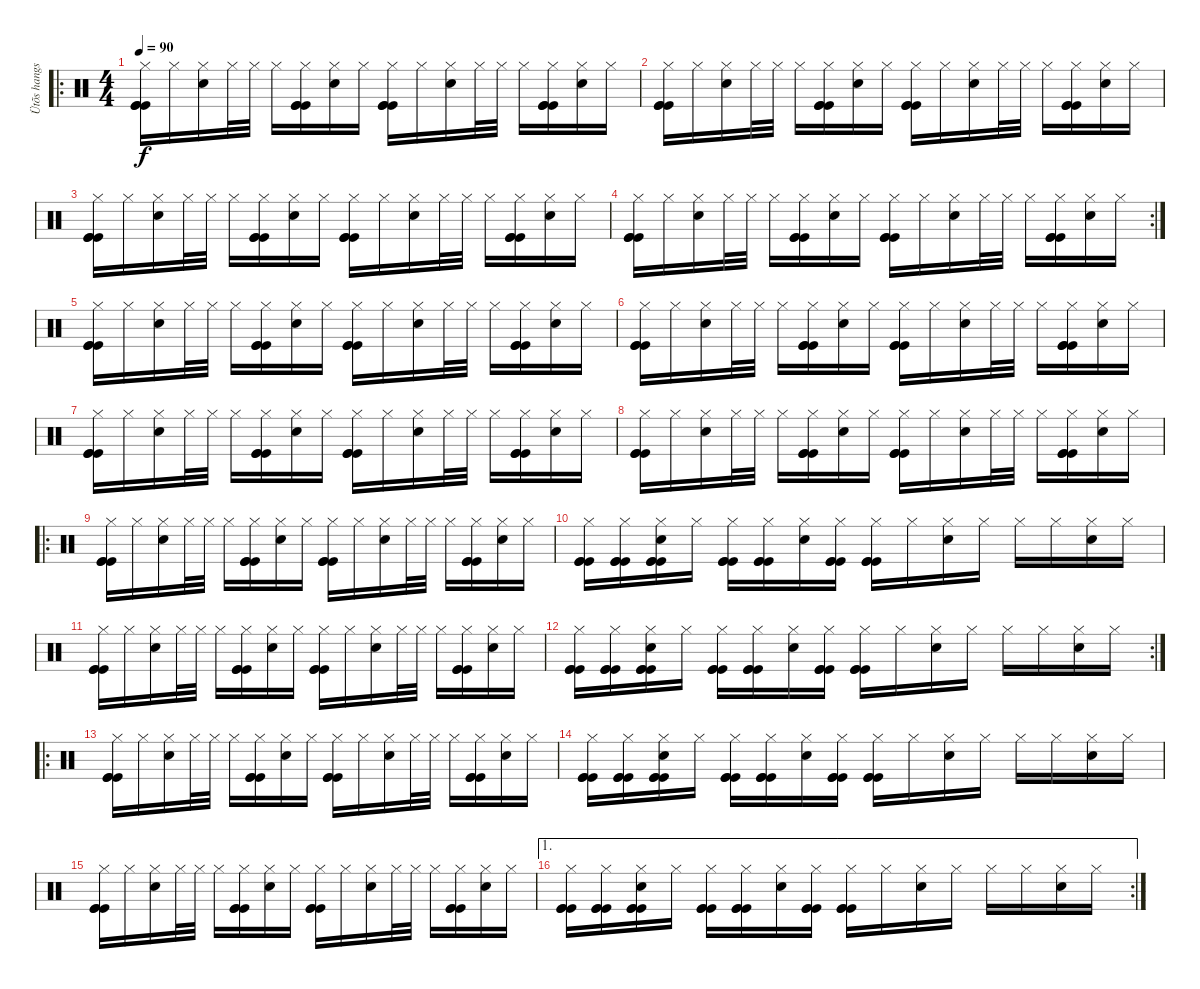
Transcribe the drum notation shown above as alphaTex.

\track ("Ütõs hangszer" "Ütõs hangs") {instrument percussion}
\staff {score}
\articulation defaults
\ro
\ts (4 4)
\tempo 90
\clef neutral
\ks c
("Hi-Hat (closed)" "Kick (hit)" "Kick (hit)" "Kick (hit)").16{dy f} "Hi-Hat (closed)".16 ("Hi-Hat (closed)" "Electric Snare (hit)").16 "Hi-Hat (closed)".32 "Hi-Hat (closed)".32 "Hi-Hat (closed)".16 ("Hi-Hat (closed)" "Kick (hit)" "Kick (hit)" "Kick (hit)").16 ("Hi-Hat (closed)" "Electric Snare (hit)").16 "Hi-Hat (closed)".16 ("Hi-Hat (closed)" "Kick (hit)" "Kick (hit)" "Kick (hit)").16 "Hi-Hat (closed)".16 ("Hi-Hat (closed)" "Electric Snare (hit)").16 "Hi-Hat (closed)".32 "Hi-Hat (closed)".32 "Hi-Hat (closed)".16 ("Hi-Hat (closed)" "Kick (hit)" "Kick (hit)" "Kick (hit)").16 ("Hi-Hat (closed)" "Electric Snare (hit)").16 "Hi-Hat (closed)".16 |
("Hi-Hat (closed)" "Kick (hit)" "Kick (hit)" "Kick (hit)").16 "Hi-Hat (closed)".16 ("Hi-Hat (closed)" "Electric Snare (hit)").16 "Hi-Hat (closed)".32 "Hi-Hat (closed)".32 "Hi-Hat (closed)".16 ("Hi-Hat (closed)" "Kick (hit)" "Kick (hit)" "Kick (hit)").16 ("Hi-Hat (closed)" "Electric Snare (hit)").16 "Hi-Hat (closed)".16 ("Hi-Hat (closed)" "Kick (hit)" "Kick (hit)" "Kick (hit)").16 "Hi-Hat (closed)".16 ("Hi-Hat (closed)" "Electric Snare (hit)").16 "Hi-Hat (closed)".32 "Hi-Hat (closed)".32 "Hi-Hat (closed)".16 ("Hi-Hat (closed)" "Kick (hit)" "Kick (hit)" "Kick (hit)").16 ("Hi-Hat (closed)" "Electric Snare (hit)").16 "Hi-Hat (closed)".16 |
("Hi-Hat (closed)" "Kick (hit)" "Kick (hit)" "Kick (hit)").16 "Hi-Hat (closed)".16 ("Hi-Hat (closed)" "Electric Snare (hit)").16 "Hi-Hat (closed)".32 "Hi-Hat (closed)".32 "Hi-Hat (closed)".16 ("Hi-Hat (closed)" "Kick (hit)" "Kick (hit)" "Kick (hit)").16 ("Hi-Hat (closed)" "Electric Snare (hit)").16 "Hi-Hat (closed)".16 ("Hi-Hat (closed)" "Kick (hit)" "Kick (hit)" "Kick (hit)").16 "Hi-Hat (closed)".16 ("Hi-Hat (closed)" "Electric Snare (hit)").16 "Hi-Hat (closed)".32 "Hi-Hat (closed)".32 "Hi-Hat (closed)".16 ("Hi-Hat (closed)" "Kick (hit)" "Kick (hit)" "Kick (hit)").16 ("Hi-Hat (closed)" "Electric Snare (hit)").16 "Hi-Hat (closed)".16 |
\rc 2
("Hi-Hat (closed)" "Kick (hit)" "Kick (hit)" "Kick (hit)").16 "Hi-Hat (closed)".16 ("Hi-Hat (closed)" "Electric Snare (hit)").16 "Hi-Hat (closed)".32 "Hi-Hat (closed)".32 "Hi-Hat (closed)".16 ("Hi-Hat (closed)" "Kick (hit)" "Kick (hit)" "Kick (hit)").16 ("Hi-Hat (closed)" "Electric Snare (hit)").16 "Hi-Hat (closed)".16 ("Hi-Hat (closed)" "Kick (hit)" "Kick (hit)" "Kick (hit)").16 "Hi-Hat (closed)".16 ("Hi-Hat (closed)" "Electric Snare (hit)").16 "Hi-Hat (closed)".32 "Hi-Hat (closed)".32 "Hi-Hat (closed)".16 ("Hi-Hat (closed)" "Kick (hit)" "Kick (hit)" "Kick (hit)").16 ("Hi-Hat (closed)" "Electric Snare (hit)").16 "Hi-Hat (closed)".16 |
("Hi-Hat (closed)" "Kick (hit)" "Kick (hit)" "Kick (hit)").16 "Hi-Hat (closed)".16 ("Hi-Hat (closed)" "Electric Snare (hit)").16 "Hi-Hat (closed)".32 "Hi-Hat (closed)".32 "Hi-Hat (closed)".16 ("Hi-Hat (closed)" "Kick (hit)" "Kick (hit)" "Kick (hit)").16 ("Hi-Hat (closed)" "Electric Snare (hit)").16 "Hi-Hat (closed)".16 ("Hi-Hat (closed)" "Kick (hit)" "Kick (hit)" "Kick (hit)").16 "Hi-Hat (closed)".16 ("Hi-Hat (closed)" "Electric Snare (hit)").16 "Hi-Hat (closed)".32 "Hi-Hat (closed)".32 "Hi-Hat (closed)".16 ("Hi-Hat (closed)" "Kick (hit)" "Kick (hit)" "Kick (hit)").16 ("Hi-Hat (closed)" "Electric Snare (hit)").16 "Hi-Hat (closed)".16 |
("Hi-Hat (closed)" "Kick (hit)" "Kick (hit)" "Kick (hit)").16 "Hi-Hat (closed)".16 ("Hi-Hat (closed)" "Electric Snare (hit)").16 "Hi-Hat (closed)".32 "Hi-Hat (closed)".32 "Hi-Hat (closed)".16 ("Hi-Hat (closed)" "Kick (hit)" "Kick (hit)" "Kick (hit)").16 ("Hi-Hat (closed)" "Electric Snare (hit)").16 "Hi-Hat (closed)".16 ("Hi-Hat (closed)" "Kick (hit)" "Kick (hit)" "Kick (hit)").16 "Hi-Hat (closed)".16 ("Hi-Hat (closed)" "Electric Snare (hit)").16 "Hi-Hat (closed)".32 "Hi-Hat (closed)".32 "Hi-Hat (closed)".16 ("Hi-Hat (closed)" "Kick (hit)" "Kick (hit)" "Kick (hit)").16 ("Hi-Hat (closed)" "Electric Snare (hit)").16 "Hi-Hat (closed)".16 |
("Hi-Hat (closed)" "Kick (hit)" "Kick (hit)" "Kick (hit)").16 "Hi-Hat (closed)".16 ("Hi-Hat (closed)" "Electric Snare (hit)").16 "Hi-Hat (closed)".32 "Hi-Hat (closed)".32 "Hi-Hat (closed)".16 ("Hi-Hat (closed)" "Kick (hit)" "Kick (hit)" "Kick (hit)").16 ("Hi-Hat (closed)" "Electric Snare (hit)").16 "Hi-Hat (closed)".16 ("Hi-Hat (closed)" "Kick (hit)" "Kick (hit)" "Kick (hit)").16 "Hi-Hat (closed)".16 ("Hi-Hat (closed)" "Electric Snare (hit)").16 "Hi-Hat (closed)".32 "Hi-Hat (closed)".32 "Hi-Hat (closed)".16 ("Hi-Hat (closed)" "Kick (hit)" "Kick (hit)" "Kick (hit)").16 ("Hi-Hat (closed)" "Electric Snare (hit)").16 "Hi-Hat (closed)".16 |
("Hi-Hat (closed)" "Kick (hit)" "Kick (hit)" "Kick (hit)").16 "Hi-Hat (closed)".16 ("Hi-Hat (closed)" "Electric Snare (hit)").16 "Hi-Hat (closed)".32 "Hi-Hat (closed)".32 "Hi-Hat (closed)".16 ("Hi-Hat (closed)" "Kick (hit)" "Kick (hit)" "Kick (hit)").16 ("Hi-Hat (closed)" "Electric Snare (hit)").16 "Hi-Hat (closed)".16 ("Hi-Hat (closed)" "Kick (hit)" "Kick (hit)" "Kick (hit)").16 "Hi-Hat (closed)".16 ("Hi-Hat (closed)" "Electric Snare (hit)").16 "Hi-Hat (closed)".32 "Hi-Hat (closed)".32 "Hi-Hat (closed)".16 ("Hi-Hat (closed)" "Kick (hit)" "Kick (hit)" "Kick (hit)").16 ("Hi-Hat (closed)" "Electric Snare (hit)").16 "Hi-Hat (closed)".16 |
\ro
("Hi-Hat (closed)" "Kick (hit)" "Kick (hit)" "Kick (hit)").16 "Hi-Hat (closed)".16 ("Hi-Hat (closed)" "Electric Snare (hit)").16 "Hi-Hat (closed)".32 "Hi-Hat (closed)".32 "Hi-Hat (closed)".16 ("Hi-Hat (closed)" "Kick (hit)" "Kick (hit)" "Kick (hit)").16 ("Hi-Hat (closed)" "Electric Snare (hit)").16 "Hi-Hat (closed)".16 ("Hi-Hat (closed)" "Kick (hit)" "Kick (hit)" "Kick (hit)").16 "Hi-Hat (closed)".16 ("Hi-Hat (closed)" "Electric Snare (hit)").16 "Hi-Hat (closed)".32 "Hi-Hat (closed)".32 "Hi-Hat (closed)".16 ("Hi-Hat (closed)" "Kick (hit)" "Kick (hit)" "Kick (hit)").16 ("Hi-Hat (closed)" "Electric Snare (hit)").16 "Hi-Hat (closed)".16 |
("Hi-Hat (closed)" "Kick (hit)" "Kick (hit)" "Kick (hit)").16 ("Hi-Hat (closed)" "Kick (hit)" "Kick (hit)" "Kick (hit)").16 ("Hi-Hat (closed)" "Electric Snare (hit)" "Kick (hit)" "Kick (hit)" "Kick (hit)").16 "Hi-Hat (closed)".16 ("Hi-Hat (closed)" "Kick (hit)" "Kick (hit)" "Kick (hit)").16 ("Hi-Hat (closed)" "Kick (hit)" "Kick (hit)" "Kick (hit)").16 ("Hi-Hat (closed)" "Electric Snare (hit)").16 ("Hi-Hat (closed)" "Kick (hit)" "Kick (hit)" "Kick (hit)").16 ("Hi-Hat (closed)" "Kick (hit)" "Kick (hit)" "Kick (hit)").16 "Hi-Hat (closed)".16 ("Hi-Hat (closed)" "Electric Snare (hit)").16 "Hi-Hat (closed)".16 "Hi-Hat (closed)".16 "Hi-Hat (closed)".16 ("Hi-Hat (closed)" "Electric Snare (hit)").16 "Hi-Hat (closed)".16 |
("Hi-Hat (closed)" "Kick (hit)" "Kick (hit)" "Kick (hit)").16 "Hi-Hat (closed)".16 ("Hi-Hat (closed)" "Electric Snare (hit)").16 "Hi-Hat (closed)".32 "Hi-Hat (closed)".32 "Hi-Hat (closed)".16 ("Hi-Hat (closed)" "Kick (hit)" "Kick (hit)" "Kick (hit)").16 ("Hi-Hat (closed)" "Electric Snare (hit)").16 "Hi-Hat (closed)".16 ("Hi-Hat (closed)" "Kick (hit)" "Kick (hit)" "Kick (hit)").16 "Hi-Hat (closed)".16 ("Hi-Hat (closed)" "Electric Snare (hit)").16 "Hi-Hat (closed)".32 "Hi-Hat (closed)".32 "Hi-Hat (closed)".16 ("Hi-Hat (closed)" "Kick (hit)" "Kick (hit)" "Kick (hit)").16 ("Hi-Hat (closed)" "Electric Snare (hit)").16 "Hi-Hat (closed)".16 |
\rc 2
("Hi-Hat (closed)" "Kick (hit)" "Kick (hit)" "Kick (hit)").16 ("Hi-Hat (closed)" "Kick (hit)" "Kick (hit)" "Kick (hit)").16 ("Hi-Hat (closed)" "Electric Snare (hit)" "Kick (hit)" "Kick (hit)" "Kick (hit)").16 "Hi-Hat (closed)".16 ("Hi-Hat (closed)" "Kick (hit)" "Kick (hit)" "Kick (hit)").16 ("Hi-Hat (closed)" "Kick (hit)" "Kick (hit)" "Kick (hit)").16 ("Hi-Hat (closed)" "Electric Snare (hit)").16 ("Hi-Hat (closed)" "Kick (hit)" "Kick (hit)" "Kick (hit)").16 ("Hi-Hat (closed)" "Kick (hit)" "Kick (hit)" "Kick (hit)").16 "Hi-Hat (closed)".16 ("Hi-Hat (closed)" "Electric Snare (hit)").16 "Hi-Hat (closed)".16 "Hi-Hat (closed)".16 "Hi-Hat (closed)".16 ("Hi-Hat (closed)" "Electric Snare (hit)").16 "Hi-Hat (closed)".16 |
\ro
("Hi-Hat (closed)" "Kick (hit)" "Kick (hit)" "Kick (hit)").16 "Hi-Hat (closed)".16 ("Hi-Hat (closed)" "Electric Snare (hit)").16 "Hi-Hat (closed)".32 "Hi-Hat (closed)".32 "Hi-Hat (closed)".16 ("Hi-Hat (closed)" "Kick (hit)" "Kick (hit)" "Kick (hit)").16 ("Hi-Hat (closed)" "Electric Snare (hit)").16 "Hi-Hat (closed)".16 ("Hi-Hat (closed)" "Kick (hit)" "Kick (hit)" "Kick (hit)").16 "Hi-Hat (closed)".16 ("Hi-Hat (closed)" "Electric Snare (hit)").16 "Hi-Hat (closed)".32 "Hi-Hat (closed)".32 "Hi-Hat (closed)".16 ("Hi-Hat (closed)" "Kick (hit)" "Kick (hit)" "Kick (hit)").16 ("Hi-Hat (closed)" "Electric Snare (hit)").16 "Hi-Hat (closed)".16 |
("Hi-Hat (closed)" "Kick (hit)" "Kick (hit)" "Kick (hit)").16 ("Hi-Hat (closed)" "Kick (hit)" "Kick (hit)" "Kick (hit)").16 ("Hi-Hat (closed)" "Electric Snare (hit)" "Kick (hit)" "Kick (hit)" "Kick (hit)").16 "Hi-Hat (closed)".16 ("Hi-Hat (closed)" "Kick (hit)" "Kick (hit)" "Kick (hit)").16 ("Hi-Hat (closed)" "Kick (hit)" "Kick (hit)" "Kick (hit)").16 ("Hi-Hat (closed)" "Electric Snare (hit)").16 ("Hi-Hat (closed)" "Kick (hit)" "Kick (hit)" "Kick (hit)").16 ("Hi-Hat (closed)" "Kick (hit)" "Kick (hit)" "Kick (hit)").16 "Hi-Hat (closed)".16 ("Hi-Hat (closed)" "Electric Snare (hit)").16 "Hi-Hat (closed)".16 "Hi-Hat (closed)".16 "Hi-Hat (closed)".16 ("Hi-Hat (closed)" "Electric Snare (hit)").16 "Hi-Hat (closed)".16 |
("Hi-Hat (closed)" "Kick (hit)" "Kick (hit)" "Kick (hit)").16 "Hi-Hat (closed)".16 ("Hi-Hat (closed)" "Electric Snare (hit)").16 "Hi-Hat (closed)".32 "Hi-Hat (closed)".32 "Hi-Hat (closed)".16 ("Hi-Hat (closed)" "Kick (hit)" "Kick (hit)" "Kick (hit)").16 ("Hi-Hat (closed)" "Electric Snare (hit)").16 "Hi-Hat (closed)".16 ("Hi-Hat (closed)" "Kick (hit)" "Kick (hit)" "Kick (hit)").16 "Hi-Hat (closed)".16 ("Hi-Hat (closed)" "Electric Snare (hit)").16 "Hi-Hat (closed)".32 "Hi-Hat (closed)".32 "Hi-Hat (closed)".16 ("Hi-Hat (closed)" "Kick (hit)" "Kick (hit)" "Kick (hit)").16 ("Hi-Hat (closed)" "Electric Snare (hit)").16 "Hi-Hat (closed)".16 |
\ae 1
\rc 2
("Hi-Hat (closed)" "Kick (hit)" "Kick (hit)" "Kick (hit)").16 ("Hi-Hat (closed)" "Kick (hit)" "Kick (hit)" "Kick (hit)").16 ("Hi-Hat (closed)" "Electric Snare (hit)" "Kick (hit)" "Kick (hit)" "Kick (hit)").16 "Hi-Hat (closed)".16 ("Hi-Hat (closed)" "Kick (hit)" "Kick (hit)" "Kick (hit)").16 ("Hi-Hat (closed)" "Kick (hit)" "Kick (hit)" "Kick (hit)").16 ("Hi-Hat (closed)" "Electric Snare (hit)").16 ("Hi-Hat (closed)" "Kick (hit)" "Kick (hit)" "Kick (hit)").16 ("Hi-Hat (closed)" "Kick (hit)" "Kick (hit)" "Kick (hit)").16 "Hi-Hat (closed)".16 ("Hi-Hat (closed)" "Electric Snare (hit)").16 "Hi-Hat (closed)".16 "Hi-Hat (closed)".16 "Hi-Hat (closed)".16 ("Hi-Hat (closed)" "Electric Snare (hit)").16 "Hi-Hat (closed)".16
